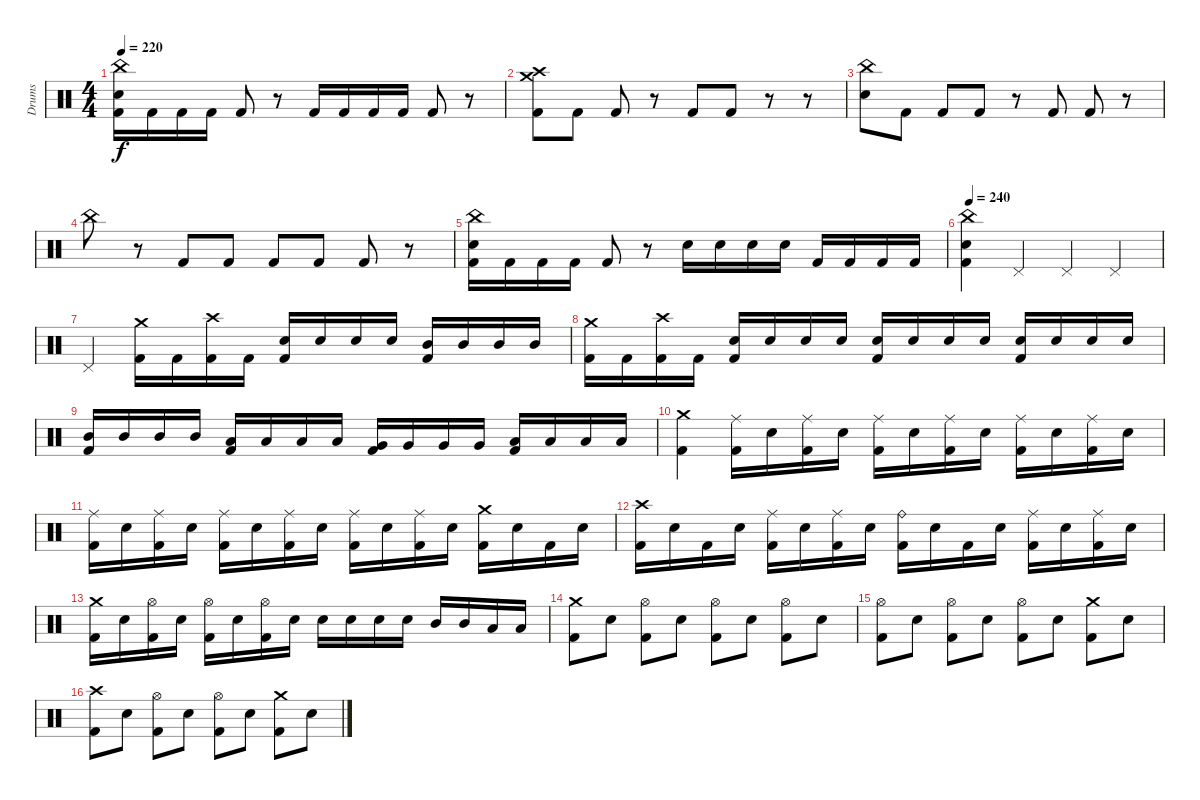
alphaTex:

\track ("Drums" "Drums") {instrument percussion}
\staff {score}
\articulation defaults
\ts (4 4)
\tempo 220
\clef neutral
\ks c
("China (hit)" "Electric Snare (hit)" "Kick (hit) 2").16{dy f} "Kick (hit) 2".16 "Kick (hit) 2".16 "Kick (hit) 2".16 "Kick (hit) 2".8 r.8 "Kick (hit) 2".16 "Kick (hit) 2".16 "Kick (hit) 2".16 "Kick (hit) 2".16 "Kick (hit) 2".8 r.8 |
("Crash medium (hit)" "Crash high (hit)" "Kick (hit) 2").8 "Kick (hit) 2".8 "Kick (hit) 2".8 r.8 "Kick (hit) 2".8 "Kick (hit) 2".8 r.8 r.8 |
("China (hit)" "Electric Snare (hit)").8 "Kick (hit) 2".8 "Kick (hit) 2".8 "Kick (hit) 2".8 r.8 "Kick (hit) 2".8 "Kick (hit) 2".8 r.8 |
"China (hit)".8 r.8 "Kick (hit) 2".8 "Kick (hit) 2".8 "Kick (hit) 2".8 "Kick (hit) 2".8 "Kick (hit) 2".8 r.8 |
("China (hit)" "Electric Snare (hit)" "Kick (hit) 2").16 "Kick (hit) 2".16 "Kick (hit) 2".16 "Kick (hit) 2".16 "Kick (hit) 2".8 r.8 "Electric Snare (hit)".16 "Electric Snare (hit)".16 "Electric Snare (hit)".16 "Electric Snare (hit)".16 "Kick (hit) 2".16 "Kick (hit) 2".16 "Kick (hit) 2".16 "Kick (hit) 2".16 |
\tempo 240
("China (hit)" "Electric Snare (hit)" "Kick (hit) 2").4 "Pedal Hi-Hat (hit)".4 "Pedal Hi-Hat (hit)".4 "Pedal Hi-Hat (hit)".4 |
"Pedal Hi-Hat (hit)".4 ("Crash medium (hit)" "Kick (hit) 2").16 "Kick (hit) 2".16 ("Crash high (hit)" "Kick (hit) 2").16 "Kick (hit) 2".16 ("Electric Snare (hit)" "Kick (hit) 2").16 "Electric Snare (hit)".16 "Electric Snare (hit)".16 "Electric Snare (hit)".16 ("Mid Tom (hit)" "Kick (hit) 2").16 "Mid Tom (hit)".16 "Mid Tom (hit)".16 "Mid Tom (hit)".16 |
("Crash medium (hit)" "Kick (hit) 2").16 "Kick (hit) 2".16 ("Crash high (hit)" "Kick (hit) 2").16 "Kick (hit) 2".16 ("Electric Snare (hit)" "Kick (hit) 2").16 "Electric Snare (hit)".16 "Electric Snare (hit)".16 "Electric Snare (hit)".16 ("Electric Snare (hit)" "Kick (hit) 2").16 "Electric Snare (hit)".16 "Electric Snare (hit)".16 "Electric Snare (hit)".16 ("Electric Snare (hit)" "Kick (hit) 2").16 "Electric Snare (hit)".16 "Electric Snare (hit)".16 "Electric Snare (hit)".16 |
("Mid Tom (hit)" "Kick (hit) 2").16 "Mid Tom (hit)".16 "Mid Tom (hit)".16 "Mid Tom (hit)".16 ("Low Tom (hit)" "Kick (hit) 2").16 "Low Tom (hit)".16 "Low Tom (hit)".16 "Low Tom (hit)".16 ("Very Low Tom (hit)" "Kick (hit) 2").16 "Very Low Tom (hit)".16 "Very Low Tom (hit)".16 "Very Low Tom (hit)".16 ("Low Floor Tom (hit)" "Kick (hit) 2").16 "Low Floor Tom (hit)".16 "Low Floor Tom (hit)".16 "Low Floor Tom (hit)".16 |
("Crash medium (hit)" "Kick (hit) 2").4 ("Ride (middle)" "Kick (hit) 2").16 "Electric Snare (hit)".16 ("Ride (middle)" "Kick (hit) 2").16 "Electric Snare (hit)".16 ("Ride (middle)" "Kick (hit) 2").16 "Electric Snare (hit)".16 ("Ride (middle)" "Kick (hit) 2").16 "Electric Snare (hit)".16 ("Ride (middle)" "Kick (hit) 2").16 "Electric Snare (hit)".16 ("Ride (middle)" "Kick (hit) 2").16 "Electric Snare (hit)".16 |
("Ride (middle)" "Kick (hit) 2").16 "Electric Snare (hit)".16 ("Ride (middle)" "Kick (hit) 2").16 "Electric Snare (hit)".16 ("Ride (middle)" "Kick (hit) 2").16 "Electric Snare (hit)".16 ("Ride (middle)" "Kick (hit) 2").16 "Electric Snare (hit)".16 ("Ride (middle)" "Kick (hit) 2").16 "Electric Snare (hit)".16 ("Ride (middle)" "Kick (hit) 2").16 "Electric Snare (hit)".16 ("Crash medium (hit)" "Kick (hit) 2").16 "Electric Snare (hit)".16 "Kick (hit) 2".16 "Electric Snare (hit)".16 |
("Crash high (hit)" "Kick (hit) 2").16 "Electric Snare (hit)".16 "Kick (hit) 2".16 "Electric Snare (hit)".16 ("Ride (middle)" "Kick (hit) 2").16 "Electric Snare (hit)".16 ("Ride (middle)" "Kick (hit) 2").16 "Electric Snare (hit)".16 ("Ride (bell)" "Kick (hit) 2").16 "Electric Snare (hit)".16 "Kick (hit) 2".16 "Electric Snare (hit)".16 ("Ride (middle)" "Kick (hit) 2").16 "Electric Snare (hit)".16 ("Ride (middle)" "Kick (hit) 2").16 "Electric Snare (hit)".16 |
("Crash medium (hit)" "Kick (hit) 2").16 "Electric Snare (hit)".16 ("Hi-Hat (open)" "Kick (hit) 2").16 "Electric Snare (hit)".16 ("Hi-Hat (open)" "Kick (hit) 2").16 "Electric Snare (hit)".16 ("Hi-Hat (open)" "Kick (hit) 2").16 "Electric Snare (hit)".16 "Electric Snare (hit)".16 "Electric Snare (hit)".16 "Electric Snare (hit)".16 "Electric Snare (hit)".16 "Mid Tom (hit)".16 "Mid Tom (hit)".16 "Low Tom (hit)".16 "Low Tom (hit)".16 |
("Crash medium (hit)" "Kick (hit) 2").8 "Electric Snare (hit)".8 ("Hi-Hat (open)" "Kick (hit) 2").8 "Electric Snare (hit)".8 ("Hi-Hat (open)" "Kick (hit) 2").8 "Electric Snare (hit)".8 ("Hi-Hat (open)" "Kick (hit) 2").8 "Electric Snare (hit)".8 |
("Hi-Hat (open)" "Kick (hit) 2").8 "Electric Snare (hit)".8 ("Hi-Hat (open)" "Kick (hit) 2").8 "Electric Snare (hit)".8 ("Hi-Hat (open)" "Kick (hit) 2").8 "Electric Snare (hit)".8 ("Crash medium (hit)" "Kick (hit) 2").8 "Electric Snare (hit)".8 |
("Crash high (hit)" "Kick (hit) 2").8 "Electric Snare (hit)".8 ("Hi-Hat (open)" "Kick (hit) 2").8 "Electric Snare (hit)".8 ("Hi-Hat (open)" "Kick (hit) 2").8 "Electric Snare (hit)".8 ("Crash medium (hit)" "Kick (hit) 2").8 "Electric Snare (hit)".8
